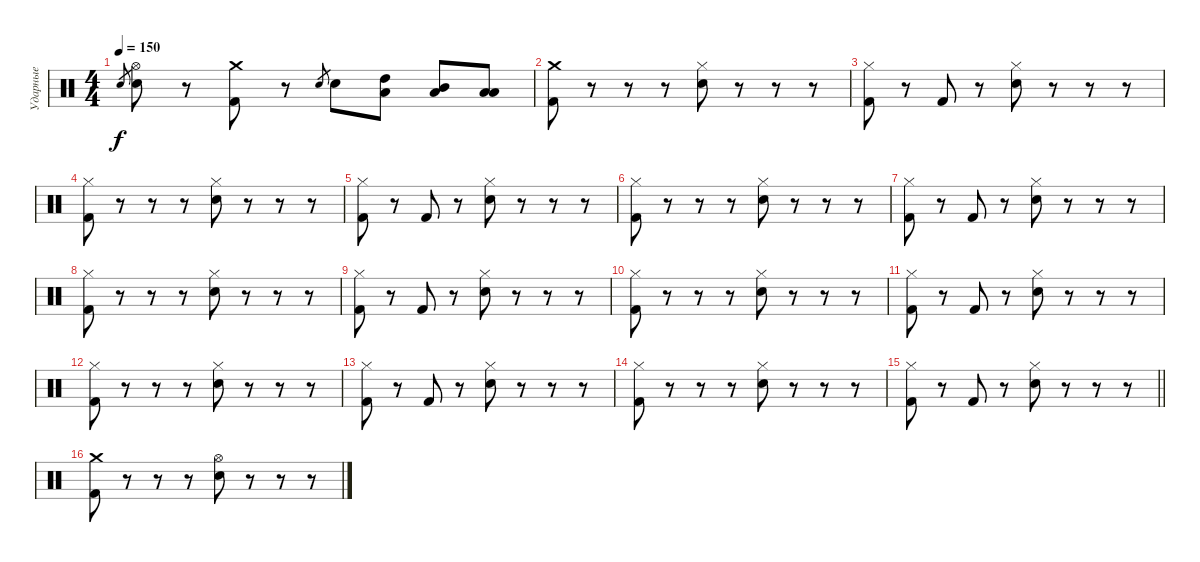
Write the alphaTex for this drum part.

\track ("Ударные" "Ударные") {instrument percussion}
\staff {score}
\articulation defaults
\ts (4 4)
\tempo 150
\clef neutral
\ks c "Electric Snare (hit)".8{gr dy f}
("Hi-Hat (open)" "Electric Snare (hit)").8 r.8 ("Crash medium (hit)" "Kick (hit) 2").8 r.8 "Electric Snare (hit)".8{gr} "Electric Snare (hit)".8 ("Low Tom (hit)" "High Tom (hit)").8 ("Low Tom (hit)" "Mid Tom (hit)").8 ("Low Tom (hit)" "Low Tom (hit)").8 |
("Crash medium (hit)" "Kick (hit) 2").8 r.8 r.8 r.8 ("Hi-Hat (closed)" "Electric Snare (hit)").8 r.8 r.8 r.8 |
("Hi-Hat (closed)" "Kick (hit) 2").8 r.8 "Kick (hit) 2".8 r.8 ("Hi-Hat (closed)" "Electric Snare (hit)").8 r.8 r.8 r.8 |
("Hi-Hat (closed)" "Kick (hit) 2").8 r.8 r.8 r.8 ("Hi-Hat (closed)" "Electric Snare (hit)").8 r.8 r.8 r.8 |
("Hi-Hat (closed)" "Kick (hit) 2").8 r.8 "Kick (hit) 2".8 r.8 ("Hi-Hat (closed)" "Electric Snare (hit)").8 r.8 r.8 r.8 |
("Hi-Hat (closed)" "Kick (hit) 2").8 r.8 r.8 r.8 ("Hi-Hat (closed)" "Electric Snare (hit)").8 r.8 r.8 r.8 |
("Hi-Hat (closed)" "Kick (hit) 2").8 r.8 "Kick (hit) 2".8 r.8 ("Hi-Hat (closed)" "Electric Snare (hit)").8 r.8 r.8 r.8 |
("Hi-Hat (closed)" "Kick (hit) 2").8 r.8 r.8 r.8 ("Hi-Hat (closed)" "Electric Snare (hit)").8 r.8 r.8 r.8 |
("Hi-Hat (closed)" "Kick (hit) 2").8 r.8 "Kick (hit) 2".8 r.8 ("Hi-Hat (closed)" "Electric Snare (hit)").8 r.8 r.8 r.8 |
("Hi-Hat (closed)" "Kick (hit) 2").8 r.8 r.8 r.8 ("Hi-Hat (closed)" "Electric Snare (hit)").8 r.8 r.8 r.8 |
("Hi-Hat (closed)" "Kick (hit) 2").8 r.8 "Kick (hit) 2".8 r.8 ("Hi-Hat (closed)" "Electric Snare (hit)").8 r.8 r.8 r.8 |
("Hi-Hat (closed)" "Kick (hit) 2").8 r.8 r.8 r.8 ("Hi-Hat (closed)" "Electric Snare (hit)").8 r.8 r.8 r.8 |
("Hi-Hat (closed)" "Kick (hit) 2").8 r.8 "Kick (hit) 2".8 r.8 ("Hi-Hat (closed)" "Electric Snare (hit)").8 r.8 r.8 r.8 |
("Hi-Hat (closed)" "Kick (hit) 2").8 r.8 r.8 r.8 ("Hi-Hat (closed)" "Electric Snare (hit)").8 r.8 r.8 r.8 |
\barLineRight lightlight
("Hi-Hat (closed)" "Kick (hit) 2").8 r.8 "Kick (hit) 2".8 r.8 ("Hi-Hat (closed)" "Electric Snare (hit)").8 r.8 r.8 r.8 |
("Crash medium (hit)" "Kick (hit) 2").8 r.8 r.8 r.8 ("Hi-Hat (open)" "Electric Snare (hit)").8 r.8 r.8 r.8
